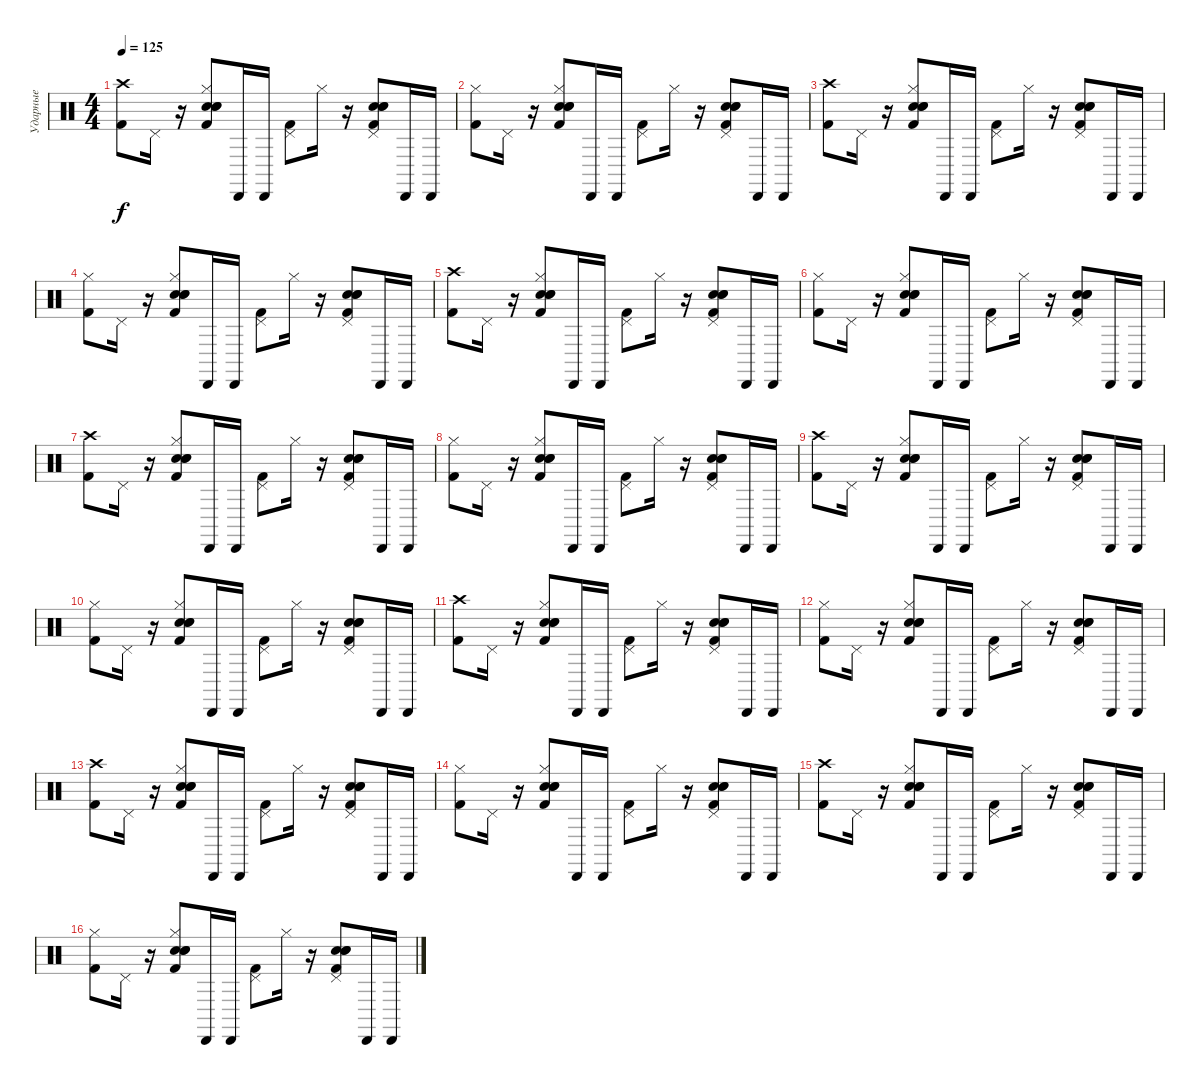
\track ("Ударные" "Ударные") {instrument percussion}
\staff {score}
\articulation defaults
\ts (4 4)
\tempo 125
\clef neutral
\ks c
("Crash high (hit)" "Kick (hit) 2").8{dy f} "Pedal Hi-Hat (hit)".16 r.16 ("Hi-Hat (closed)" "Hand Clap (hit)" "Electric Snare (hit)" "Snare (hit) 2" "Kick (hit) 2").8 "Cabasa (hit)".16 "Cabasa (hit)".16 ("Pedal Hi-Hat (hit)" "Kick (hit) 2").8 "Hi-Hat (closed)".16 r.16 ("Pedal Hi-Hat (hit)" "Hand Clap (hit)" "Electric Snare (hit)" "Snare (hit) 2" "Kick (hit) 2").8 "Cabasa (hit)".16 "Cabasa (hit)".16 |
("Hi-Hat (closed)" "Kick (hit) 2").8 "Pedal Hi-Hat (hit)".16 r.16 ("Hi-Hat (closed)" "Hand Clap (hit)" "Electric Snare (hit)" "Snare (hit) 2" "Kick (hit) 2").8 "Cabasa (hit)".16 "Cabasa (hit)".16 ("Pedal Hi-Hat (hit)" "Kick (hit) 2").8 "Hi-Hat (closed)".16 r.16 ("Pedal Hi-Hat (hit)" "Hand Clap (hit)" "Electric Snare (hit)" "Snare (hit) 2" "Kick (hit) 2").8 "Cabasa (hit)".16 "Cabasa (hit)".16 |
("Crash high (hit)" "Kick (hit) 2").8 "Pedal Hi-Hat (hit)".16 r.16 ("Hi-Hat (closed)" "Hand Clap (hit)" "Electric Snare (hit)" "Snare (hit) 2" "Kick (hit) 2").8 "Cabasa (hit)".16 "Cabasa (hit)".16 ("Pedal Hi-Hat (hit)" "Kick (hit) 2").8 "Hi-Hat (closed)".16 r.16 ("Pedal Hi-Hat (hit)" "Hand Clap (hit)" "Electric Snare (hit)" "Snare (hit) 2" "Kick (hit) 2").8 "Cabasa (hit)".16 "Cabasa (hit)".16 |
("Hi-Hat (closed)" "Kick (hit) 2").8 "Pedal Hi-Hat (hit)".16 r.16 ("Hi-Hat (closed)" "Hand Clap (hit)" "Electric Snare (hit)" "Snare (hit) 2" "Kick (hit) 2").8 "Cabasa (hit)".16 "Cabasa (hit)".16 ("Pedal Hi-Hat (hit)" "Kick (hit) 2").8 "Hi-Hat (closed)".16 r.16 ("Pedal Hi-Hat (hit)" "Hand Clap (hit)" "Electric Snare (hit)" "Snare (hit) 2" "Kick (hit) 2").8 "Cabasa (hit)".16 "Cabasa (hit)".16 |
("Crash high (hit)" "Kick (hit) 2").8 "Pedal Hi-Hat (hit)".16 r.16 ("Hi-Hat (closed)" "Hand Clap (hit)" "Electric Snare (hit)" "Snare (hit) 2" "Kick (hit) 2").8 "Cabasa (hit)".16 "Cabasa (hit)".16 ("Pedal Hi-Hat (hit)" "Kick (hit) 2").8 "Hi-Hat (closed)".16 r.16 ("Pedal Hi-Hat (hit)" "Hand Clap (hit)" "Electric Snare (hit)" "Snare (hit) 2" "Kick (hit) 2").8 "Cabasa (hit)".16 "Cabasa (hit)".16 |
("Hi-Hat (closed)" "Kick (hit) 2").8 "Pedal Hi-Hat (hit)".16 r.16 ("Hi-Hat (closed)" "Hand Clap (hit)" "Electric Snare (hit)" "Snare (hit) 2" "Kick (hit) 2").8 "Cabasa (hit)".16 "Cabasa (hit)".16 ("Pedal Hi-Hat (hit)" "Kick (hit) 2").8 "Hi-Hat (closed)".16 r.16 ("Pedal Hi-Hat (hit)" "Hand Clap (hit)" "Electric Snare (hit)" "Snare (hit) 2" "Kick (hit) 2").8 "Cabasa (hit)".16 "Cabasa (hit)".16 |
("Crash high (hit)" "Kick (hit) 2").8 "Pedal Hi-Hat (hit)".16 r.16 ("Hi-Hat (closed)" "Hand Clap (hit)" "Electric Snare (hit)" "Snare (hit) 2" "Kick (hit) 2").8 "Cabasa (hit)".16 "Cabasa (hit)".16 ("Pedal Hi-Hat (hit)" "Kick (hit) 2").8 "Hi-Hat (closed)".16 r.16 ("Pedal Hi-Hat (hit)" "Hand Clap (hit)" "Electric Snare (hit)" "Snare (hit) 2" "Kick (hit) 2").8 "Cabasa (hit)".16 "Cabasa (hit)".16 |
("Hi-Hat (closed)" "Kick (hit) 2").8 "Pedal Hi-Hat (hit)".16 r.16 ("Hi-Hat (closed)" "Hand Clap (hit)" "Electric Snare (hit)" "Snare (hit) 2" "Kick (hit) 2").8 "Cabasa (hit)".16 "Cabasa (hit)".16 ("Pedal Hi-Hat (hit)" "Kick (hit) 2").8 "Hi-Hat (closed)".16 r.16 ("Pedal Hi-Hat (hit)" "Hand Clap (hit)" "Electric Snare (hit)" "Snare (hit) 2" "Kick (hit) 2").8 "Cabasa (hit)".16 "Cabasa (hit)".16 |
("Crash high (hit)" "Kick (hit) 2").8 "Pedal Hi-Hat (hit)".16 r.16 ("Hi-Hat (closed)" "Hand Clap (hit)" "Electric Snare (hit)" "Snare (hit) 2" "Kick (hit) 2").8 "Cabasa (hit)".16 "Cabasa (hit)".16 ("Pedal Hi-Hat (hit)" "Kick (hit) 2").8 "Hi-Hat (closed)".16 r.16 ("Pedal Hi-Hat (hit)" "Hand Clap (hit)" "Electric Snare (hit)" "Snare (hit) 2" "Kick (hit) 2").8 "Cabasa (hit)".16 "Cabasa (hit)".16 |
("Hi-Hat (closed)" "Kick (hit) 2").8 "Pedal Hi-Hat (hit)".16 r.16 ("Hi-Hat (closed)" "Hand Clap (hit)" "Electric Snare (hit)" "Snare (hit) 2" "Kick (hit) 2").8 "Cabasa (hit)".16 "Cabasa (hit)".16 ("Pedal Hi-Hat (hit)" "Kick (hit) 2").8 "Hi-Hat (closed)".16 r.16 ("Pedal Hi-Hat (hit)" "Hand Clap (hit)" "Electric Snare (hit)" "Snare (hit) 2" "Kick (hit) 2").8 "Cabasa (hit)".16 "Cabasa (hit)".16 |
("Crash high (hit)" "Kick (hit) 2").8 "Pedal Hi-Hat (hit)".16 r.16 ("Hi-Hat (closed)" "Hand Clap (hit)" "Electric Snare (hit)" "Snare (hit) 2" "Kick (hit) 2").8 "Cabasa (hit)".16 "Cabasa (hit)".16 ("Pedal Hi-Hat (hit)" "Kick (hit) 2").8 "Hi-Hat (closed)".16 r.16 ("Pedal Hi-Hat (hit)" "Hand Clap (hit)" "Electric Snare (hit)" "Snare (hit) 2" "Kick (hit) 2").8 "Cabasa (hit)".16 "Cabasa (hit)".16 |
("Hi-Hat (closed)" "Kick (hit) 2").8 "Pedal Hi-Hat (hit)".16 r.16 ("Hi-Hat (closed)" "Hand Clap (hit)" "Electric Snare (hit)" "Snare (hit) 2" "Kick (hit) 2").8 "Cabasa (hit)".16 "Cabasa (hit)".16 ("Pedal Hi-Hat (hit)" "Kick (hit) 2").8 "Hi-Hat (closed)".16 r.16 ("Pedal Hi-Hat (hit)" "Hand Clap (hit)" "Electric Snare (hit)" "Snare (hit) 2" "Kick (hit) 2").8 "Cabasa (hit)".16 "Cabasa (hit)".16 |
("Crash high (hit)" "Kick (hit) 2").8 "Pedal Hi-Hat (hit)".16 r.16 ("Hi-Hat (closed)" "Hand Clap (hit)" "Electric Snare (hit)" "Snare (hit) 2" "Kick (hit) 2").8 "Cabasa (hit)".16 "Cabasa (hit)".16 ("Pedal Hi-Hat (hit)" "Kick (hit) 2").8 "Hi-Hat (closed)".16 r.16 ("Pedal Hi-Hat (hit)" "Hand Clap (hit)" "Electric Snare (hit)" "Snare (hit) 2" "Kick (hit) 2").8 "Cabasa (hit)".16 "Cabasa (hit)".16 |
("Hi-Hat (closed)" "Kick (hit) 2").8 "Pedal Hi-Hat (hit)".16 r.16 ("Hi-Hat (closed)" "Hand Clap (hit)" "Electric Snare (hit)" "Snare (hit) 2" "Kick (hit) 2").8 "Cabasa (hit)".16 "Cabasa (hit)".16 ("Pedal Hi-Hat (hit)" "Kick (hit) 2").8 "Hi-Hat (closed)".16 r.16 ("Pedal Hi-Hat (hit)" "Hand Clap (hit)" "Electric Snare (hit)" "Snare (hit) 2" "Kick (hit) 2").8 "Cabasa (hit)".16 "Cabasa (hit)".16 |
("Crash high (hit)" "Kick (hit) 2").8 "Pedal Hi-Hat (hit)".16 r.16 ("Hi-Hat (closed)" "Hand Clap (hit)" "Electric Snare (hit)" "Snare (hit) 2" "Kick (hit) 2").8 "Cabasa (hit)".16 "Cabasa (hit)".16 ("Pedal Hi-Hat (hit)" "Kick (hit) 2").8 "Hi-Hat (closed)".16 r.16 ("Pedal Hi-Hat (hit)" "Hand Clap (hit)" "Electric Snare (hit)" "Snare (hit) 2" "Kick (hit) 2").8 "Cabasa (hit)".16 "Cabasa (hit)".16 |
("Hi-Hat (closed)" "Kick (hit) 2").8 "Pedal Hi-Hat (hit)".16 r.16 ("Hi-Hat (closed)" "Hand Clap (hit)" "Electric Snare (hit)" "Snare (hit) 2" "Kick (hit) 2").8 "Cabasa (hit)".16 "Cabasa (hit)".16 ("Pedal Hi-Hat (hit)" "Kick (hit) 2").8 "Hi-Hat (closed)".16 r.16 ("Pedal Hi-Hat (hit)" "Hand Clap (hit)" "Electric Snare (hit)" "Snare (hit) 2" "Kick (hit) 2").8 "Cabasa (hit)".16 "Cabasa (hit)".16
